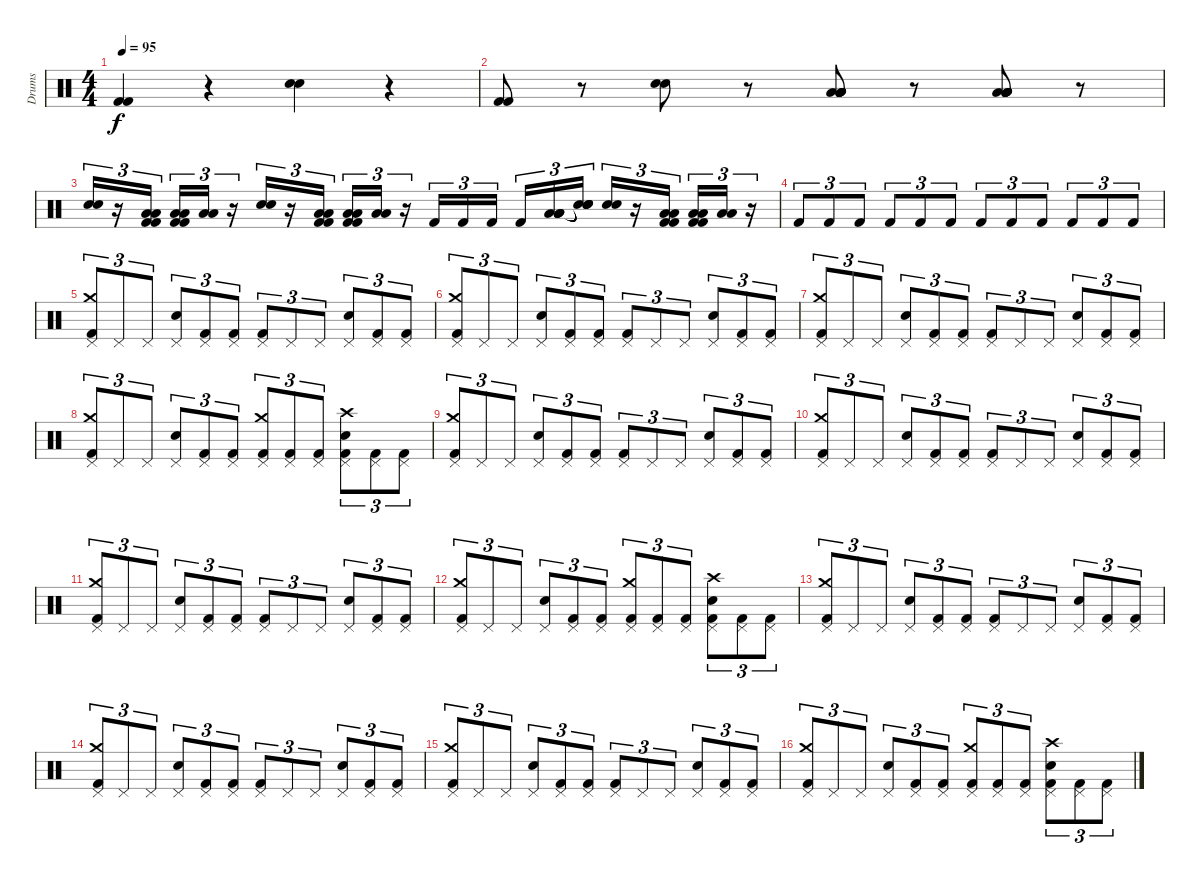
\track ("Drums" "Drums") {instrument percussion}
\staff {score}
\articulation defaults
\ts (4 4)
\tempo 95
\clef neutral
\ks c
("Kick (hit) 2" "Kick (hit) 2").4{dy f} r.4 ("Snare (hit) 2" "Snare (hit) 2").4 r.4 |
("Kick (hit) 2" "Kick (hit) 2").8 r.8 ("Snare (hit) 2" "Snare (hit) 2").8 r.8 ("Low Tom (hit)" "Low Tom (hit)" "Low Tom (hit)" "Low Tom (hit)" "Low Tom (hit)" "Low Tom (hit)").8 r.8 ("Low Floor Tom (hit)" "Low Floor Tom (hit)" "Low Floor Tom (hit)" "Low Floor Tom (hit)" "Low Floor Tom (hit)" "Low Floor Tom (hit)").8 r.8 |
("Snare (hit) 2" "Snare (hit) 2").16{tu (3 2)} r.16{tu (3 2)} ("Kick (hit) 2" "Kick (hit) 2" "Low Tom (hit)" "Low Tom (hit)").16{tu (3 2) beam splitsecondary} ("Kick (hit) 2" "Kick (hit) 2" "Low Tom (hit)" "Low Tom (hit)").16{tu (3 2)} ("Low Floor Tom (hit)" "Low Floor Tom (hit)").16{tu (3 2)} r.16{tu (3 2)} ("Snare (hit) 2" "Snare (hit) 2").16{tu (3 2)} r.16{tu (3 2)} ("Kick (hit) 2" "Kick (hit) 2" "Low Tom (hit)" "Low Tom (hit)").16{tu (3 2) beam splitsecondary} ("Kick (hit) 2" "Kick (hit) 2" "Low Tom (hit)" "Low Tom (hit)").16{tu (3 2)} ("Low Floor Tom (hit)" "Low Floor Tom (hit)").16{tu (3 2)} r.16{tu (3 2)} "Kick (hit) 2".16{tu (3 2)} "Kick (hit) 2".16{tu (3 2)} "Kick (hit) 2".16{tu (3 2) beam splitsecondary} "Kick (hit) 2".16{tu (3 2)} ("Low Tom (hit)" "Low Tom (hit)" "Low Tom (hit)" "Low Tom (hit)").16{tu (3 2)} ("Snare (hit)"{t} "Snare (hit)"{t} "Snare (hit)"{t} "Snare (hit)"{t}).16{tu (3 2)} ("Snare (hit) 2" "Snare (hit) 2").16{tu (3 2)} r.16{tu (3 2)} ("Kick (hit) 2" "Kick (hit) 2" "Low Tom (hit)" "Low Tom (hit)").16{tu (3 2) beam splitsecondary} ("Kick (hit) 2" "Kick (hit) 2" "Low Tom (hit)" "Low Tom (hit)").16{tu (3 2)} ("Low Floor Tom (hit)" "Low Floor Tom (hit)").16{tu (3 2)} r.16{tu (3 2)} |
"Kick (hit) 2".8{tu (3 2) volume 8} "Kick (hit) 2".8{tu (3 2) volume 13} "Kick (hit) 2".8{tu (3 2)} "Kick (hit) 2".8{tu (3 2)} "Kick (hit) 2".8{tu (3 2)} "Kick (hit) 2".8{tu (3 2)} "Kick (hit) 2".8{tu (3 2)} "Kick (hit) 2".8{tu (3 2)} "Kick (hit) 2".8{tu (3 2)} "Kick (hit) 2".8{tu (3 2)} "Kick (hit) 2".8{tu (3 2)} "Kick (hit) 2".8{tu (3 2)} |
("Kick (hit) 2" "Crash medium (hit)" "Pedal Hi-Hat (hit)").8{tu (3 2)} "Pedal Hi-Hat (hit)".8{tu (3 2)} "Pedal Hi-Hat (hit)".8{tu (3 2)} ("Snare (hit) 2" "Pedal Hi-Hat (hit)").8{tu (3 2)} ("Kick (hit) 2" "Pedal Hi-Hat (hit)").8{tu (3 2)} ("Kick (hit) 2" "Pedal Hi-Hat (hit)").8{tu (3 2)} ("Kick (hit) 2" "Pedal Hi-Hat (hit)").8{tu (3 2)} "Pedal Hi-Hat (hit)".8{tu (3 2)} "Pedal Hi-Hat (hit)".8{tu (3 2)} ("Snare (hit) 2" "Pedal Hi-Hat (hit)").8{tu (3 2)} ("Kick (hit) 2" "Pedal Hi-Hat (hit)").8{tu (3 2)} ("Kick (hit) 2" "Pedal Hi-Hat (hit)").8{tu (3 2)} |
("Kick (hit) 2" "Crash medium (hit)" "Pedal Hi-Hat (hit)").8{tu (3 2)} "Pedal Hi-Hat (hit)".8{tu (3 2)} "Pedal Hi-Hat (hit)".8{tu (3 2)} ("Snare (hit) 2" "Pedal Hi-Hat (hit)").8{tu (3 2)} ("Kick (hit) 2" "Pedal Hi-Hat (hit)").8{tu (3 2)} ("Kick (hit) 2" "Pedal Hi-Hat (hit)").8{tu (3 2)} ("Kick (hit) 2" "Pedal Hi-Hat (hit)").8{tu (3 2)} "Pedal Hi-Hat (hit)".8{tu (3 2)} "Pedal Hi-Hat (hit)".8{tu (3 2)} ("Snare (hit) 2" "Pedal Hi-Hat (hit)").8{tu (3 2)} ("Kick (hit) 2" "Pedal Hi-Hat (hit)").8{tu (3 2)} ("Kick (hit) 2" "Pedal Hi-Hat (hit)").8{tu (3 2)} |
("Kick (hit) 2" "Crash medium (hit)" "Pedal Hi-Hat (hit)").8{tu (3 2)} "Pedal Hi-Hat (hit)".8{tu (3 2)} "Pedal Hi-Hat (hit)".8{tu (3 2)} ("Snare (hit) 2" "Pedal Hi-Hat (hit)").8{tu (3 2)} ("Kick (hit) 2" "Pedal Hi-Hat (hit)").8{tu (3 2)} ("Kick (hit) 2" "Pedal Hi-Hat (hit)").8{tu (3 2)} ("Kick (hit) 2" "Pedal Hi-Hat (hit)").8{tu (3 2)} "Pedal Hi-Hat (hit)".8{tu (3 2)} "Pedal Hi-Hat (hit)".8{tu (3 2)} ("Snare (hit) 2" "Pedal Hi-Hat (hit)").8{tu (3 2)} ("Kick (hit) 2" "Pedal Hi-Hat (hit)").8{tu (3 2)} ("Kick (hit) 2" "Pedal Hi-Hat (hit)").8{tu (3 2)} |
("Kick (hit) 2" "Crash medium (hit)" "Pedal Hi-Hat (hit)").8{tu (3 2)} "Pedal Hi-Hat (hit)".8{tu (3 2)} "Pedal Hi-Hat (hit)".8{tu (3 2)} ("Snare (hit) 2" "Pedal Hi-Hat (hit)").8{tu (3 2)} ("Kick (hit) 2" "Pedal Hi-Hat (hit)").8{tu (3 2)} ("Kick (hit) 2" "Pedal Hi-Hat (hit)").8{tu (3 2)} ("Kick (hit) 2" "Crash medium (hit)" "Pedal Hi-Hat (hit)").8{tu (3 2)} ("Kick (hit) 2" "Pedal Hi-Hat (hit)").8{tu (3 2)} ("Kick (hit) 2" "Pedal Hi-Hat (hit)").8{tu (3 2)} ("Kick (hit) 2" "Crash high (hit)" "Snare (hit) 2" "Pedal Hi-Hat (hit)").8{tu (3 2)} ("Kick (hit) 2" "Pedal Hi-Hat (hit)").8{tu (3 2)} ("Kick (hit) 2" "Pedal Hi-Hat (hit)").8{tu (3 2)} |
("Kick (hit) 2" "Crash medium (hit)" "Pedal Hi-Hat (hit)").8{tu (3 2)} "Pedal Hi-Hat (hit)".8{tu (3 2)} "Pedal Hi-Hat (hit)".8{tu (3 2)} ("Snare (hit) 2" "Pedal Hi-Hat (hit)").8{tu (3 2)} ("Kick (hit) 2" "Pedal Hi-Hat (hit)").8{tu (3 2)} ("Kick (hit) 2" "Pedal Hi-Hat (hit)").8{tu (3 2)} ("Kick (hit) 2" "Pedal Hi-Hat (hit)").8{tu (3 2)} "Pedal Hi-Hat (hit)".8{tu (3 2)} "Pedal Hi-Hat (hit)".8{tu (3 2)} ("Snare (hit) 2" "Pedal Hi-Hat (hit)").8{tu (3 2)} ("Kick (hit) 2" "Pedal Hi-Hat (hit)").8{tu (3 2)} ("Kick (hit) 2" "Pedal Hi-Hat (hit)").8{tu (3 2)} |
("Kick (hit) 2" "Crash medium (hit)" "Pedal Hi-Hat (hit)").8{tu (3 2)} "Pedal Hi-Hat (hit)".8{tu (3 2)} "Pedal Hi-Hat (hit)".8{tu (3 2)} ("Snare (hit) 2" "Pedal Hi-Hat (hit)").8{tu (3 2)} ("Kick (hit) 2" "Pedal Hi-Hat (hit)").8{tu (3 2)} ("Kick (hit) 2" "Pedal Hi-Hat (hit)").8{tu (3 2)} ("Kick (hit) 2" "Pedal Hi-Hat (hit)").8{tu (3 2)} "Pedal Hi-Hat (hit)".8{tu (3 2)} "Pedal Hi-Hat (hit)".8{tu (3 2)} ("Snare (hit) 2" "Pedal Hi-Hat (hit)").8{tu (3 2)} ("Kick (hit) 2" "Pedal Hi-Hat (hit)").8{tu (3 2)} ("Kick (hit) 2" "Pedal Hi-Hat (hit)").8{tu (3 2)} |
("Kick (hit) 2" "Crash medium (hit)" "Pedal Hi-Hat (hit)").8{tu (3 2)} "Pedal Hi-Hat (hit)".8{tu (3 2)} "Pedal Hi-Hat (hit)".8{tu (3 2)} ("Snare (hit) 2" "Pedal Hi-Hat (hit)").8{tu (3 2)} ("Kick (hit) 2" "Pedal Hi-Hat (hit)").8{tu (3 2)} ("Kick (hit) 2" "Pedal Hi-Hat (hit)").8{tu (3 2)} ("Kick (hit) 2" "Pedal Hi-Hat (hit)").8{tu (3 2)} "Pedal Hi-Hat (hit)".8{tu (3 2)} "Pedal Hi-Hat (hit)".8{tu (3 2)} ("Snare (hit) 2" "Pedal Hi-Hat (hit)").8{tu (3 2)} ("Kick (hit) 2" "Pedal Hi-Hat (hit)").8{tu (3 2)} ("Kick (hit) 2" "Pedal Hi-Hat (hit)").8{tu (3 2)} |
("Kick (hit) 2" "Crash medium (hit)" "Pedal Hi-Hat (hit)").8{tu (3 2)} "Pedal Hi-Hat (hit)".8{tu (3 2)} "Pedal Hi-Hat (hit)".8{tu (3 2)} ("Snare (hit) 2" "Pedal Hi-Hat (hit)").8{tu (3 2)} ("Kick (hit) 2" "Pedal Hi-Hat (hit)").8{tu (3 2)} ("Kick (hit) 2" "Pedal Hi-Hat (hit)").8{tu (3 2)} ("Kick (hit) 2" "Crash medium (hit)" "Pedal Hi-Hat (hit)").8{tu (3 2)} ("Kick (hit) 2" "Pedal Hi-Hat (hit)").8{tu (3 2)} ("Kick (hit) 2" "Pedal Hi-Hat (hit)").8{tu (3 2)} ("Kick (hit) 2" "Crash high (hit)" "Snare (hit) 2" "Pedal Hi-Hat (hit)").8{tu (3 2)} ("Kick (hit) 2" "Pedal Hi-Hat (hit)").8{tu (3 2)} ("Kick (hit) 2" "Pedal Hi-Hat (hit)").8{tu (3 2)} |
("Kick (hit) 2" "Crash medium (hit)" "Pedal Hi-Hat (hit)").8{tu (3 2)} "Pedal Hi-Hat (hit)".8{tu (3 2)} "Pedal Hi-Hat (hit)".8{tu (3 2)} ("Snare (hit) 2" "Pedal Hi-Hat (hit)").8{tu (3 2)} ("Kick (hit) 2" "Pedal Hi-Hat (hit)").8{tu (3 2)} ("Kick (hit) 2" "Pedal Hi-Hat (hit)").8{tu (3 2)} ("Kick (hit) 2" "Pedal Hi-Hat (hit)").8{tu (3 2)} "Pedal Hi-Hat (hit)".8{tu (3 2)} "Pedal Hi-Hat (hit)".8{tu (3 2)} ("Snare (hit) 2" "Pedal Hi-Hat (hit)").8{tu (3 2)} ("Kick (hit) 2" "Pedal Hi-Hat (hit)").8{tu (3 2)} ("Kick (hit) 2" "Pedal Hi-Hat (hit)").8{tu (3 2)} |
("Kick (hit) 2" "Crash medium (hit)" "Pedal Hi-Hat (hit)").8{tu (3 2)} "Pedal Hi-Hat (hit)".8{tu (3 2)} "Pedal Hi-Hat (hit)".8{tu (3 2)} ("Snare (hit) 2" "Pedal Hi-Hat (hit)").8{tu (3 2)} ("Kick (hit) 2" "Pedal Hi-Hat (hit)").8{tu (3 2)} ("Kick (hit) 2" "Pedal Hi-Hat (hit)").8{tu (3 2)} ("Kick (hit) 2" "Pedal Hi-Hat (hit)").8{tu (3 2)} "Pedal Hi-Hat (hit)".8{tu (3 2)} "Pedal Hi-Hat (hit)".8{tu (3 2)} ("Snare (hit) 2" "Pedal Hi-Hat (hit)").8{tu (3 2)} ("Kick (hit) 2" "Pedal Hi-Hat (hit)").8{tu (3 2)} ("Kick (hit) 2" "Pedal Hi-Hat (hit)").8{tu (3 2)} |
("Kick (hit) 2" "Crash medium (hit)" "Pedal Hi-Hat (hit)").8{tu (3 2)} "Pedal Hi-Hat (hit)".8{tu (3 2)} "Pedal Hi-Hat (hit)".8{tu (3 2)} ("Snare (hit) 2" "Pedal Hi-Hat (hit)").8{tu (3 2)} ("Kick (hit) 2" "Pedal Hi-Hat (hit)").8{tu (3 2)} ("Kick (hit) 2" "Pedal Hi-Hat (hit)").8{tu (3 2)} ("Kick (hit) 2" "Pedal Hi-Hat (hit)").8{tu (3 2)} "Pedal Hi-Hat (hit)".8{tu (3 2)} "Pedal Hi-Hat (hit)".8{tu (3 2)} ("Snare (hit) 2" "Pedal Hi-Hat (hit)").8{tu (3 2)} ("Kick (hit) 2" "Pedal Hi-Hat (hit)").8{tu (3 2)} ("Kick (hit) 2" "Pedal Hi-Hat (hit)").8{tu (3 2)} |
("Kick (hit) 2" "Crash medium (hit)" "Pedal Hi-Hat (hit)").8{tu (3 2)} "Pedal Hi-Hat (hit)".8{tu (3 2)} "Pedal Hi-Hat (hit)".8{tu (3 2)} ("Snare (hit) 2" "Pedal Hi-Hat (hit)").8{tu (3 2)} ("Kick (hit) 2" "Pedal Hi-Hat (hit)").8{tu (3 2)} ("Kick (hit) 2" "Pedal Hi-Hat (hit)").8{tu (3 2)} ("Kick (hit) 2" "Crash medium (hit)" "Pedal Hi-Hat (hit)").8{tu (3 2)} ("Kick (hit) 2" "Pedal Hi-Hat (hit)").8{tu (3 2)} ("Kick (hit) 2" "Pedal Hi-Hat (hit)").8{tu (3 2)} ("Kick (hit) 2" "Crash high (hit)" "Snare (hit) 2" "Pedal Hi-Hat (hit)").8{tu (3 2)} ("Kick (hit) 2" "Pedal Hi-Hat (hit)").8{tu (3 2)} ("Kick (hit) 2" "Pedal Hi-Hat (hit)").8{tu (3 2)}
